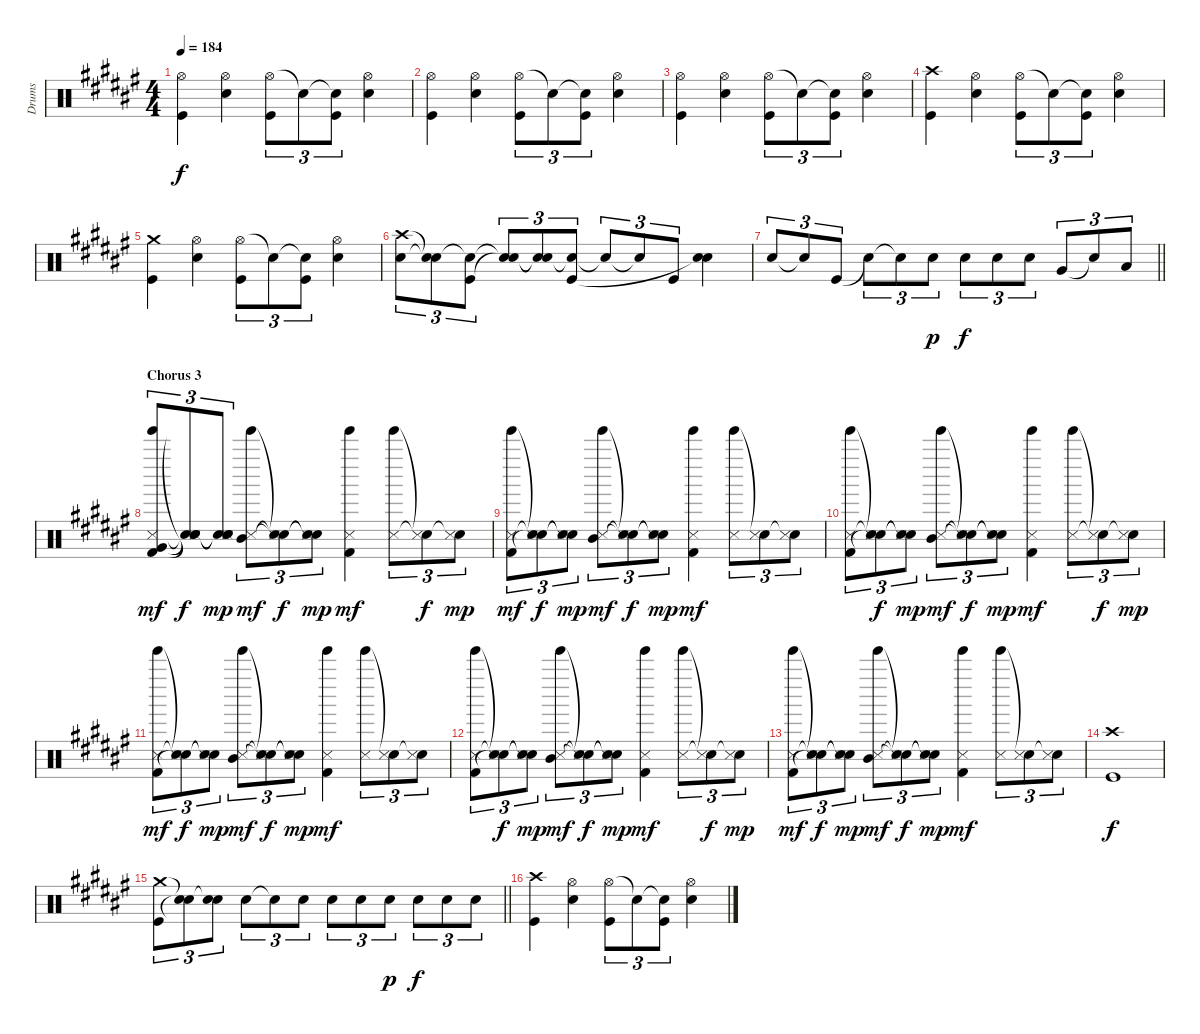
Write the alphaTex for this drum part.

\track ("Drums" "Drums") {instrument percussion}
\staff {score}
\articulation defaults
\ts (4 4)
\tempo 184
\clef neutral
\ks f#
("Hi-Hat (open)" "Kick (hit)").4{dy f} ("Hi-Hat (open)" "Electric Snare (hit)").4 ("Hi-Hat (open)" "Kick (hit)").8{tu (3 2)} "Snare (hit)"{t}.8{tu (3 2)} ("Snare (hit)"{t} "Kick (hit)").8{tu (3 2)} ("Hi-Hat (open)" "Electric Snare (hit)").4 |
("Hi-Hat (open)" "Kick (hit)").4 ("Hi-Hat (open)" "Electric Snare (hit)").4 ("Hi-Hat (open)" "Kick (hit)").8{tu (3 2)} "Snare (hit)"{t}.8{tu (3 2)} ("Snare (hit)"{t} "Kick (hit)").8{tu (3 2)} ("Hi-Hat (open)" "Electric Snare (hit)").4 |
("Hi-Hat (open)" "Kick (hit)").4 ("Hi-Hat (open)" "Electric Snare (hit)").4 ("Hi-Hat (open)" "Kick (hit)").8{tu (3 2)} "Snare (hit)"{t}.8{tu (3 2)} ("Snare (hit)"{t} "Kick (hit)").8{tu (3 2)} ("Hi-Hat (open)" "Electric Snare (hit)").4 |
("Crash high (hit)" "Kick (hit)").4 ("Hi-Hat (open)" "Electric Snare (hit)").4 ("Hi-Hat (open)" "Kick (hit)").8{tu (3 2)} "Snare (hit)"{t}.8{tu (3 2)} ("Snare (hit)"{t} "Kick (hit)").8{tu (3 2)} ("Hi-Hat (open)" "Electric Snare (hit)").4 |
("Crash medium (hit)" "Kick (hit)").4 ("Hi-Hat (open)" "Electric Snare (hit)").4 ("Hi-Hat (open)" "Kick (hit)").8{tu (3 2)} "Snare (hit)"{t}.8{tu (3 2)} ("Snare (hit)"{t} "Kick (hit)").8{tu (3 2)} ("Hi-Hat (open)" "Electric Snare (hit)").4 |
("Crash high (hit)" "Electric Snare (hit)").8{tu (3 2)} ("Snare (hit)"{t} "Snare (hit)"{t}).8{tu (3 2)} ("Snare (hit)"{t} "Kick (hit)").8{tu (3 2)} ("Snare (hit)"{t} "Snare (hit)"{t}).8{tu (3 2)} ("Snare (hit)"{t} "Snare (hit)"{t}).8{tu (3 2)} ("Snare (hit)"{t} "Kick (hit)").8{tu (3 2)} "Snare (hit)"{t}.8{tu (3 2)} "Snare (hit)"{t}.8{tu (3 2)} "Kick (hit)".8{tu (3 2)} ("Electric Snare (hit)" "Snare (hit)"{t}).4 |
\barLineRight lightlight "Electric Snare (hit)".8{tu (3 2)} "Snare (hit)"{t}.8{tu (3 2)} "Kick (hit)".8{tu (3 2)} "Snare (hit)"{t}.8{tu (3 2)} "Snare (hit)"{t}.8{tu (3 2)} "Electric Snare (hit)".8{tu (3 2) dy p} "Electric Snare (hit)".8{tu (3 2) dy f} "Electric Snare (hit)".8{tu (3 2)} "Electric Snare (hit)".8{tu (3 2)} "Very Low Tom (hit)".8{tu (3 2)} "Snare (hit)"{t}.8{tu (3 2)} "Low Tom (hit)".8{tu (3 2)}
|
\section ("" "Chorus 3")
("Tinkle Bell (hit)" "Metronome (hit)" "Very Low Tom (hit)" "Kick (hit) 2").8{tu (3 2) dy mf} ("Snare (hit)"{t} "Metronome (hit)"{t} "Snare (hit)"{t} "Snare (hit)"{t}).8{tu (3 2) dy f} ("Snare (hit)"{t} "Metronome (hit)" "Snare (hit)"{t} "Snare (hit)"{t}).8{tu (3 2) dy mp} ("Tinkle Bell (hit)" "Metronome (hit)" "Mid Tom (hit)").8{tu (3 2) dy mf} ("Snare (hit)"{t} "Metronome (hit)"{t} "Snare (hit)"{t}).8{tu (3 2) dy f} ("Snare (hit)"{t} "Metronome (hit)" "Snare (hit)"{t}).8{tu (3 2) dy mp} ("Tinkle Bell (hit)" "Metronome (hit)" "Kick (hit) 2").4{dy mf} ("Tinkle Bell (hit)" "Metronome (hit)").8{tu (3 2)} ("Snare (hit)"{t} "Metronome (hit)"{t}).8{tu (3 2) dy f} ("Snare (hit)"{t} "Metronome (hit)").8{tu (3 2) dy mp} |
("Tinkle Bell (hit)" "Metronome (hit)" "Kick (hit) 2").8{tu (3 2) dy mf} ("Snare (hit)"{t} "Metronome (hit)"{t} "Snare (hit)"{t}).8{tu (3 2) dy f} ("Snare (hit)"{t} "Metronome (hit)" "Snare (hit)"{t}).8{tu (3 2) dy mp} ("Tinkle Bell (hit)" "Metronome (hit)" "Mid Tom (hit)").8{tu (3 2) dy mf} ("Snare (hit)"{t} "Metronome (hit)"{t} "Snare (hit)"{t}).8{tu (3 2) dy f} ("Snare (hit)"{t} "Metronome (hit)" "Snare (hit)"{t}).8{tu (3 2) dy mp} ("Tinkle Bell (hit)" "Metronome (hit)" "Kick (hit) 2").4{dy mf} ("Tinkle Bell (hit)" "Metronome (hit)").8{tu (3 2)} ("Snare (hit)"{t} "Metronome (hit)").8{tu (3 2)} ("Snare (hit)"{t} "Metronome (hit)").8{tu (3 2)} |
("Tinkle Bell (hit)" "Metronome (hit)" "Kick (hit) 2").8{tu (3 2)} ("Snare (hit)"{t} "Metronome (hit)"{t} "Snare (hit)"{t}).8{tu (3 2) dy f} ("Snare (hit)"{t} "Metronome (hit)" "Snare (hit)"{t}).8{tu (3 2) dy mp} ("Tinkle Bell (hit)" "Metronome (hit)" "Mid Tom (hit)").8{tu (3 2) dy mf} ("Snare (hit)"{t} "Metronome (hit)"{t} "Snare (hit)"{t}).8{tu (3 2) dy f} ("Snare (hit)"{t} "Metronome (hit)" "Snare (hit)"{t}).8{tu (3 2) dy mp} ("Tinkle Bell (hit)" "Metronome (hit)" "Kick (hit) 2").4{dy mf} ("Tinkle Bell (hit)" "Metronome (hit)").8{tu (3 2)} ("Snare (hit)"{t} "Metronome (hit)"{t}).8{tu (3 2) dy f} ("Snare (hit)"{t} "Metronome (hit)").8{tu (3 2) dy mp} |
("Tinkle Bell (hit)" "Metronome (hit)" "Kick (hit) 2").8{tu (3 2) dy mf} ("Snare (hit)"{t} "Metronome (hit)"{t} "Snare (hit)"{t}).8{tu (3 2) dy f} ("Snare (hit)"{t} "Metronome (hit)" "Snare (hit)"{t}).8{tu (3 2) dy mp} ("Tinkle Bell (hit)" "Metronome (hit)" "Mid Tom (hit)").8{tu (3 2) dy mf} ("Snare (hit)"{t} "Metronome (hit)"{t} "Snare (hit)"{t}).8{tu (3 2) dy f} ("Snare (hit)"{t} "Metronome (hit)" "Snare (hit)"{t}).8{tu (3 2) dy mp} ("Tinkle Bell (hit)" "Metronome (hit)" "Kick (hit) 2").4{dy mf} ("Tinkle Bell (hit)" "Metronome (hit)").8{tu (3 2)} ("Snare (hit)"{t} "Metronome (hit)").8{tu (3 2)} ("Snare (hit)"{t} "Metronome (hit)").8{tu (3 2)} |
("Tinkle Bell (hit)" "Metronome (hit)" "Kick (hit) 2").8{tu (3 2)} ("Snare (hit)"{t} "Metronome (hit)"{t} "Snare (hit)"{t}).8{tu (3 2) dy f} ("Snare (hit)"{t} "Metronome (hit)" "Snare (hit)"{t}).8{tu (3 2) dy mp} ("Tinkle Bell (hit)" "Metronome (hit)" "Mid Tom (hit)").8{tu (3 2) dy mf} ("Snare (hit)"{t} "Metronome (hit)"{t} "Snare (hit)"{t}).8{tu (3 2) dy f} ("Snare (hit)"{t} "Metronome (hit)" "Snare (hit)"{t}).8{tu (3 2) dy mp} ("Tinkle Bell (hit)" "Metronome (hit)" "Kick (hit) 2").4{dy mf} ("Tinkle Bell (hit)" "Metronome (hit)").8{tu (3 2)} ("Snare (hit)"{t} "Metronome (hit)"{t}).8{tu (3 2) dy f} ("Snare (hit)"{t} "Metronome (hit)").8{tu (3 2) dy mp} |
("Tinkle Bell (hit)" "Metronome (hit)" "Kick (hit) 2").8{tu (3 2) dy mf} ("Snare (hit)"{t} "Metronome (hit)"{t} "Snare (hit)"{t}).8{tu (3 2) dy f} ("Snare (hit)"{t} "Metronome (hit)" "Snare (hit)"{t}).8{tu (3 2) dy mp} ("Tinkle Bell (hit)" "Metronome (hit)" "Mid Tom (hit)").8{tu (3 2) dy mf} ("Snare (hit)"{t} "Metronome (hit)"{t} "Snare (hit)"{t}).8{tu (3 2) dy f} ("Snare (hit)"{t} "Metronome (hit)" "Snare (hit)"{t}).8{tu (3 2) dy mp} ("Tinkle Bell (hit)" "Metronome (hit)" "Kick (hit) 2").4{dy mf} ("Tinkle Bell (hit)" "Metronome (hit)").8{tu (3 2)} ("Snare (hit)"{t} "Metronome (hit)").8{tu (3 2)} ("Snare (hit)"{t} "Metronome (hit)").8{tu (3 2)} |
("Crash high (hit)" "Kick (hit)").1{dy f} |
\barLineRight lightlight
("Crash medium (hit)" "Kick (hit)").8{tu (3 2)} ("Snare (hit)"{t} "Snare (hit)"{t}).8{tu (3 2)} ("Electric Snare (hit)" "Snare (hit)"{t}).8{tu (3 2)} "Electric Snare (hit)".8{tu (3 2)} "Snare (hit)"{t}.8{tu (3 2)} "Electric Snare (hit)".8{tu (3 2)} "Electric Snare (hit)".8{tu (3 2)} "Electric Snare (hit)".8{tu (3 2)} "Electric Snare (hit)".8{tu (3 2) dy p} "Electric Snare (hit)".8{tu (3 2) dy f} "Electric Snare (hit)".8{tu (3 2)} "Electric Snare (hit)".8{tu (3 2)} |
("Crash high (hit)" "Kick (hit)").4 ("Hi-Hat (open)" "Electric Snare (hit)").4 ("Hi-Hat (open)" "Kick (hit)").8{tu (3 2)} "Snare (hit)"{t}.8{tu (3 2)} ("Snare (hit)"{t} "Kick (hit)").8{tu (3 2)} ("Hi-Hat (open)" "Electric Snare (hit)").4
